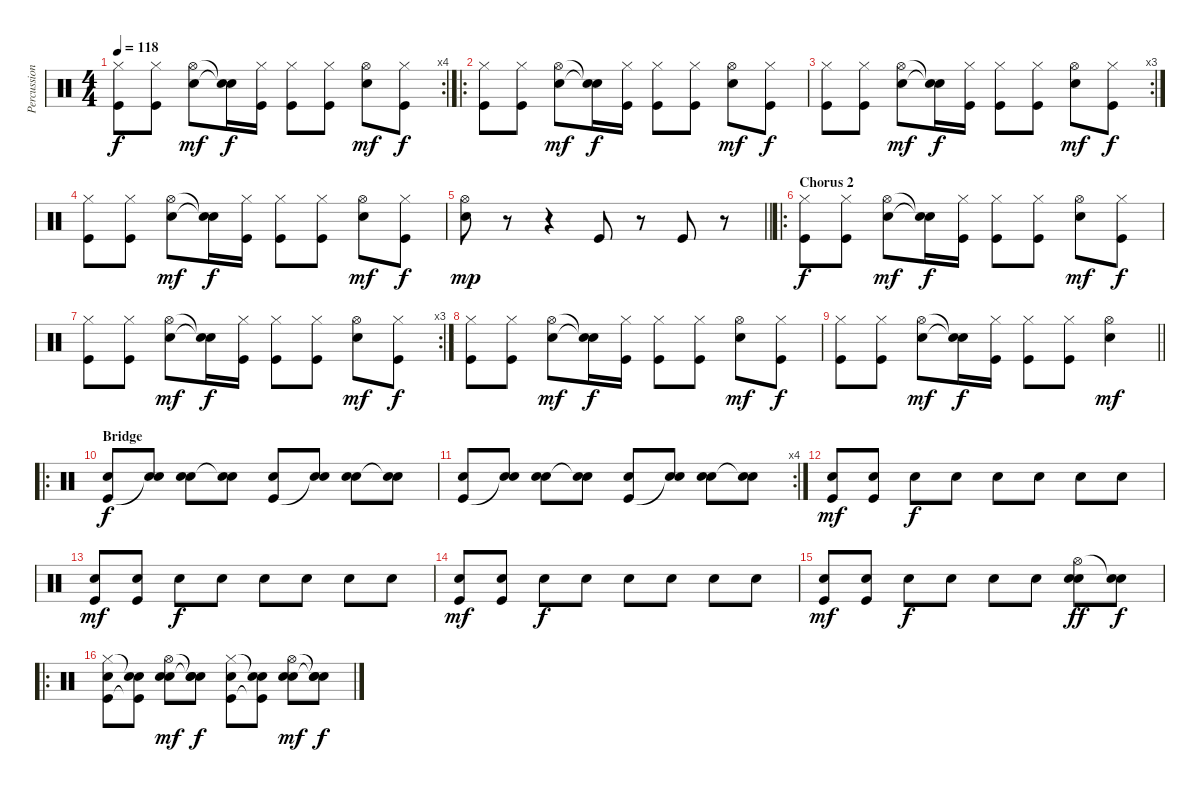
\track ("Percussion" "Percussion") {instrument percussion}
\staff {score}
\articulation defaults
\rc 4
\ts (4 4)
\tempo 118
\clef neutral
\ks c
("Hi-Hat (closed)" "Kick (hit)").8{dy f} ("Hi-Hat (closed)" "Kick (hit)").8 ("Hi-Hat (open)" "Electric Snare (hit)").8{dy mf} ("Snare (hit)"{t} "Snare (hit)"{t}).16{dy f} ("Hi-Hat (closed)" "Kick (hit)").16 ("Hi-Hat (closed)" "Kick (hit)").8 ("Hi-Hat (closed)" "Kick (hit)").8 ("Hi-Hat (open)" "Electric Snare (hit)").8{dy mf} ("Hi-Hat (closed)" "Kick (hit)").8{dy f} |
\ro
("Hi-Hat (closed)" "Kick (hit)").8 ("Hi-Hat (closed)" "Kick (hit)").8 ("Hi-Hat (open)" "Electric Snare (hit)").8{dy mf} ("Snare (hit)"{t} "Snare (hit)"{t}).16{dy f} ("Hi-Hat (closed)" "Kick (hit)").16 ("Hi-Hat (closed)" "Kick (hit)").8 ("Hi-Hat (closed)" "Kick (hit)").8 ("Hi-Hat (open)" "Electric Snare (hit)").8{dy mf} ("Hi-Hat (closed)" "Kick (hit)").8{dy f} |
\rc 3
("Hi-Hat (closed)" "Kick (hit)").8 ("Hi-Hat (closed)" "Kick (hit)").8 ("Hi-Hat (open)" "Electric Snare (hit)").8{dy mf} ("Snare (hit)"{t} "Snare (hit)"{t}).16{dy f} ("Hi-Hat (closed)" "Kick (hit)").16 ("Hi-Hat (closed)" "Kick (hit)").8 ("Hi-Hat (closed)" "Kick (hit)").8 ("Hi-Hat (open)" "Electric Snare (hit)").8{dy mf} ("Hi-Hat (closed)" "Kick (hit)").8{dy f} |
("Hi-Hat (closed)" "Kick (hit)").8 ("Hi-Hat (closed)" "Kick (hit)").8 ("Hi-Hat (open)" "Electric Snare (hit)").8{dy mf} ("Snare (hit)"{t} "Snare (hit)"{t}).16{dy f} ("Hi-Hat (closed)" "Kick (hit)").16 ("Hi-Hat (closed)" "Kick (hit)").8 ("Hi-Hat (closed)" "Kick (hit)").8 ("Hi-Hat (open)" "Electric Snare (hit)").8{dy mf} ("Hi-Hat (closed)" "Kick (hit)").8{dy f} |
\barLineRight lightlight
("Hi-Hat (open)" "Electric Snare (hit)").8{dy mp} r.8 r.4 "Kick (hit)".8 r.8 "Kick (hit)".8 r.8 |
\ro
\section ("" "Chorus 2")
("Hi-Hat (closed)" "Kick (hit)").8{dy f} ("Hi-Hat (closed)" "Kick (hit)").8 ("Hi-Hat (open)" "Electric Snare (hit)").8{dy mf} ("Snare (hit)"{t} "Snare (hit)"{t}).16{dy f} ("Hi-Hat (closed)" "Kick (hit)").16 ("Hi-Hat (closed)" "Kick (hit)").8 ("Hi-Hat (closed)" "Kick (hit)").8 ("Hi-Hat (open)" "Electric Snare (hit)").8{dy mf} ("Hi-Hat (closed)" "Kick (hit)").8{dy f} |
\rc 3
("Hi-Hat (closed)" "Kick (hit)").8 ("Hi-Hat (closed)" "Kick (hit)").8 ("Hi-Hat (open)" "Electric Snare (hit)").8{dy mf} ("Snare (hit)"{t} "Snare (hit)"{t}).16{dy f} ("Hi-Hat (closed)" "Kick (hit)").16 ("Hi-Hat (closed)" "Kick (hit)").8 ("Hi-Hat (closed)" "Kick (hit)").8 ("Hi-Hat (open)" "Electric Snare (hit)").8{dy mf} ("Hi-Hat (closed)" "Kick (hit)").8{dy f} |
("Hi-Hat (closed)" "Kick (hit)").8 ("Hi-Hat (closed)" "Kick (hit)").8 ("Hi-Hat (open)" "Electric Snare (hit)").8{dy mf} ("Snare (hit)"{t} "Snare (hit)"{t}).16{dy f} ("Hi-Hat (closed)" "Kick (hit)").16 ("Hi-Hat (closed)" "Kick (hit)").8 ("Hi-Hat (closed)" "Kick (hit)").8 ("Hi-Hat (open)" "Electric Snare (hit)").8{dy mf} ("Hi-Hat (closed)" "Kick (hit)").8{dy f} |
\barLineRight lightlight
("Hi-Hat (closed)" "Kick (hit)").8 ("Hi-Hat (closed)" "Kick (hit)").8 ("Hi-Hat (open)" "Electric Snare (hit)").8{dy mf} ("Snare (hit)"{t} "Snare (hit)"{t}).16{dy f} ("Hi-Hat (closed)" "Kick (hit)").16 ("Hi-Hat (closed)" "Kick (hit)").8 ("Hi-Hat (closed)" "Kick (hit)").8 ("Hi-Hat (open)" "Electric Snare (hit)").4{dy mf} |
\ro
\section ("" "Bridge")
("Kick (hit)" "Hand Clap (hit)").8{dy f} ("Snare (hit)"{t} "Hand Clap (hit)").8 ("Electric Snare (hit)" "Hand Clap (hit)").8 ("Snare (hit)"{t} "Hand Clap (hit)").8 ("Kick (hit)" "Hand Clap (hit)").8 ("Snare (hit)"{t} "Hand Clap (hit)").8 ("Electric Snare (hit)" "Hand Clap (hit)").8 ("Snare (hit)"{t} "Hand Clap (hit)").8 |
\rc 4
("Kick (hit)" "Hand Clap (hit)").8 ("Snare (hit)"{t} "Hand Clap (hit)").8 ("Electric Snare (hit)" "Hand Clap (hit)").8 ("Snare (hit)"{t} "Hand Clap (hit)").8 ("Kick (hit)" "Hand Clap (hit)").8 ("Snare (hit)"{t} "Hand Clap (hit)").8 ("Electric Snare (hit)" "Hand Clap (hit)").8 ("Snare (hit)"{t} "Hand Clap (hit)").8 |
("Kick (hit)" "Hand Clap (hit)").8{dy mf} ("Kick (hit)" "Hand Clap (hit)").8 "Hand Clap (hit)".8{dy f} "Hand Clap (hit)".8 "Hand Clap (hit)".8 "Hand Clap (hit)".8 "Hand Clap (hit)".8 "Hand Clap (hit)".8 |
("Kick (hit)" "Hand Clap (hit)").8{dy mf} ("Kick (hit)" "Hand Clap (hit)").8 "Hand Clap (hit)".8{dy f} "Hand Clap (hit)".8 "Hand Clap (hit)".8 "Hand Clap (hit)".8 "Hand Clap (hit)".8 "Hand Clap (hit)".8 |
("Kick (hit)" "Hand Clap (hit)").8{dy mf} ("Kick (hit)" "Hand Clap (hit)").8 "Hand Clap (hit)".8{dy f} "Hand Clap (hit)".8 "Hand Clap (hit)".8 "Hand Clap (hit)".8 "Hand Clap (hit)".8 "Hand Clap (hit)".8 |
("Kick (hit)" "Hand Clap (hit)").8{dy mf} ("Kick (hit)" "Hand Clap (hit)").8 "Hand Clap (hit)".8{dy f} "Hand Clap (hit)".8 "Hand Clap (hit)".8 "Hand Clap (hit)".8 ("Hi-Hat (open)" "Electric Snare (hit)" "Hand Clap (hit)").8{dy ff} ("Snare (hit)"{t} "Hand Clap (hit)").8{dy f} |
\ro
("Hi-Hat (closed)" "Kick (hit)" "Hand Clap (hit)").8 ("Snare (hit)"{t} "Kick (hit)"{t} "Hand Clap (hit)").8 ("Hi-Hat (open)" "Electric Snare (hit)" "Hand Clap (hit)").8{dy mf} ("Snare (hit)"{t} "Snare (hit)"{t} "Hand Clap (hit)").8{dy f} ("Hi-Hat (closed)" "Kick (hit)" "Hand Clap (hit)").8 ("Snare (hit)"{t} "Kick (hit)"{t} "Hand Clap (hit)").8 ("Hi-Hat (open)" "Electric Snare (hit)" "Hand Clap (hit)").8{dy mf} ("Snare (hit)"{t} "Snare (hit)"{t} "Hand Clap (hit)").8{dy f}
